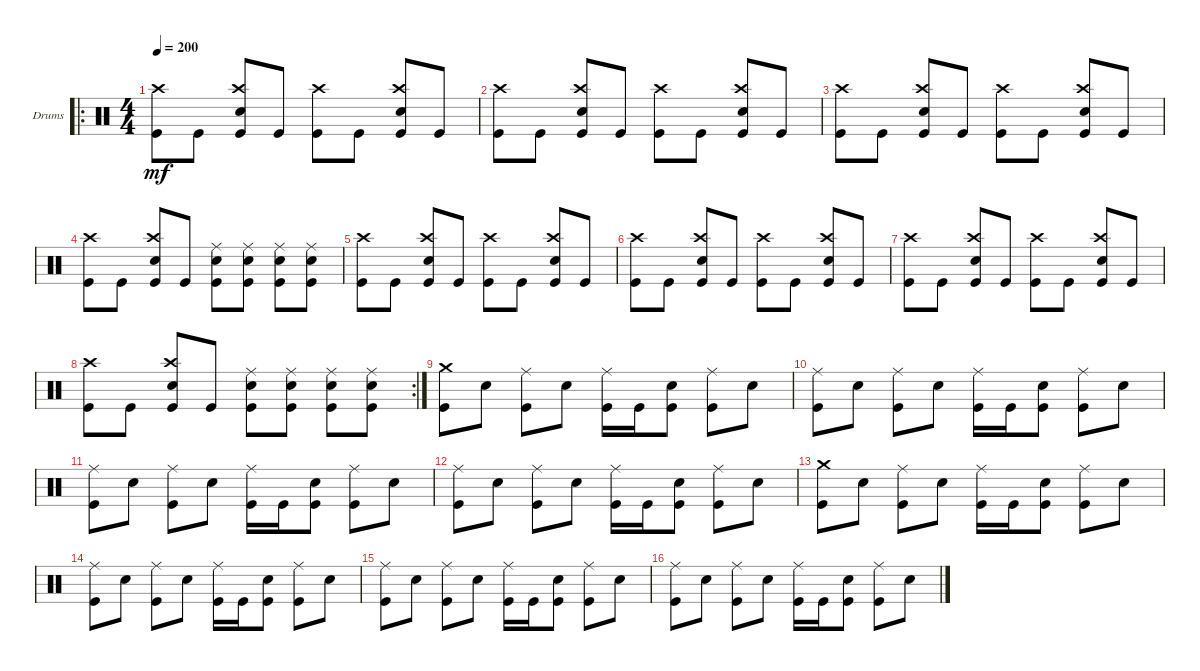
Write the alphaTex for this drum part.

\bracketExtendMode groupsimilarinstruments
\firstSystemTrackNameOrientation horizontal
\otherSystemsTrackNameOrientation horizontal
\track ("Drumkit" "Drums") {instrument percussion}
\staff {score}
\articulation defaults
\ro
\ts (4 4)
\tempo 200
\clef neutral
\ks c
("Kick (hit)" "Crash high (hit)").8{dy mf} "Kick (hit)".8 ("Kick (hit)" "Snare (hit) 2" "Crash high (hit)").8 "Kick (hit)".8 ("Kick (hit)" "Crash high (hit)").8 "Kick (hit)".8 ("Kick (hit)" "Snare (hit) 2" "Crash high (hit)").8 "Kick (hit)".8 |
("Kick (hit)" "Crash high (hit)").8 "Kick (hit)".8 ("Kick (hit)" "Snare (hit) 2" "Crash high (hit)").8 "Kick (hit)".8 ("Kick (hit)" "Crash high (hit)").8 "Kick (hit)".8 ("Kick (hit)" "Snare (hit) 2" "Crash high (hit)").8 "Kick (hit)".8 |
("Kick (hit)" "Crash high (hit)").8 "Kick (hit)".8 ("Kick (hit)" "Snare (hit) 2" "Crash high (hit)").8 "Kick (hit)".8 ("Kick (hit)" "Crash high (hit)").8 "Kick (hit)".8 ("Kick (hit)" "Snare (hit) 2" "Crash high (hit)").8 "Kick (hit)".8 |
("Kick (hit)" "Crash high (hit)").8 "Kick (hit)".8 ("Kick (hit)" "Snare (hit) 2" "Crash high (hit)").8 "Kick (hit)".8 ("Kick (hit)" "Snare (hit) 2" "Ride (middle)").8 ("Kick (hit)" "Snare (hit) 2" "Ride (middle)").8 ("Kick (hit)" "Snare (hit) 2" "Ride (middle)").8 ("Kick (hit)" "Snare (hit) 2" "Ride (middle)").8 |
("Kick (hit)" "Crash high (hit)").8 "Kick (hit)".8 ("Kick (hit)" "Snare (hit) 2" "Crash high (hit)").8 "Kick (hit)".8 ("Kick (hit)" "Crash high (hit)").8 "Kick (hit)".8 ("Kick (hit)" "Snare (hit) 2" "Crash high (hit)").8 "Kick (hit)".8 |
("Kick (hit)" "Crash high (hit)").8 "Kick (hit)".8 ("Kick (hit)" "Snare (hit) 2" "Crash high (hit)").8 "Kick (hit)".8 ("Kick (hit)" "Crash high (hit)").8 "Kick (hit)".8 ("Kick (hit)" "Snare (hit) 2" "Crash high (hit)").8 "Kick (hit)".8 |
("Kick (hit)" "Crash high (hit)").8 "Kick (hit)".8 ("Kick (hit)" "Snare (hit) 2" "Crash high (hit)").8 "Kick (hit)".8 ("Kick (hit)" "Crash high (hit)").8 "Kick (hit)".8 ("Kick (hit)" "Snare (hit) 2" "Crash high (hit)").8 "Kick (hit)".8 |
\rc 2
("Kick (hit)" "Crash high (hit)").8 "Kick (hit)".8 ("Kick (hit)" "Snare (hit) 2" "Crash high (hit)").8 "Kick (hit)".8 ("Kick (hit)" "Snare (hit) 2" "Ride (middle)").8 ("Kick (hit)" "Snare (hit) 2" "Ride (middle)").8 ("Kick (hit)" "Snare (hit) 2" "Ride (middle)").8 ("Kick (hit)" "Snare (hit) 2" "Ride (middle)").8 |
("Kick (hit)" "Crash medium (hit)").8 "Snare (hit) 2".8 ("Kick (hit)" "Ride (middle)").8 "Snare (hit) 2".8 ("Kick (hit)" "Ride (middle)").16 "Kick (hit)".16 ("Snare (hit) 2" "Kick (hit)").8 ("Kick (hit)" "Ride (middle)").8 "Snare (hit) 2".8 |
("Kick (hit)" "Ride (middle)").8 "Snare (hit) 2".8 ("Kick (hit)" "Ride (middle)").8 "Snare (hit) 2".8 ("Kick (hit)" "Ride (middle)").16 "Kick (hit)".16 ("Snare (hit) 2" "Kick (hit)").8 ("Kick (hit)" "Ride (middle)").8 "Snare (hit) 2".8 |
("Kick (hit)" "Ride (middle)").8 "Snare (hit) 2".8 ("Kick (hit)" "Ride (middle)").8 "Snare (hit) 2".8 ("Kick (hit)" "Ride (middle)").16 "Kick (hit)".16 ("Snare (hit) 2" "Kick (hit)").8 ("Kick (hit)" "Ride (middle)").8 "Snare (hit) 2".8 |
("Kick (hit)" "Ride (middle)").8 "Snare (hit) 2".8 ("Kick (hit)" "Ride (middle)").8 "Snare (hit) 2".8 ("Kick (hit)" "Ride (middle)").16 "Kick (hit)".16 ("Snare (hit) 2" "Kick (hit)").8 ("Kick (hit)" "Ride (middle)").8 "Snare (hit) 2".8 |
("Kick (hit)" "Crash medium (hit)").8 "Snare (hit) 2".8 ("Kick (hit)" "Ride (middle)").8 "Snare (hit) 2".8 ("Kick (hit)" "Ride (middle)").16 "Kick (hit)".16 ("Snare (hit) 2" "Kick (hit)").8 ("Kick (hit)" "Ride (middle)").8 "Snare (hit) 2".8 |
("Kick (hit)" "Ride (middle)").8 "Snare (hit) 2".8 ("Kick (hit)" "Ride (middle)").8 "Snare (hit) 2".8 ("Kick (hit)" "Ride (middle)").16 "Kick (hit)".16 ("Snare (hit) 2" "Kick (hit)").8 ("Kick (hit)" "Ride (middle)").8 "Snare (hit) 2".8 |
("Kick (hit)" "Ride (middle)").8 "Snare (hit) 2".8 ("Kick (hit)" "Ride (middle)").8 "Snare (hit) 2".8 ("Kick (hit)" "Ride (middle)").16 "Kick (hit)".16 ("Snare (hit) 2" "Kick (hit)").8 ("Kick (hit)" "Ride (middle)").8 "Snare (hit) 2".8 |
("Kick (hit)" "Ride (middle)").8 "Snare (hit) 2".8 ("Kick (hit)" "Ride (middle)").8 "Snare (hit) 2".8 ("Kick (hit)" "Ride (middle)").16 "Kick (hit)".16 ("Snare (hit) 2" "Kick (hit)").8 ("Kick (hit)" "Ride (middle)").8 "Snare (hit) 2".8
